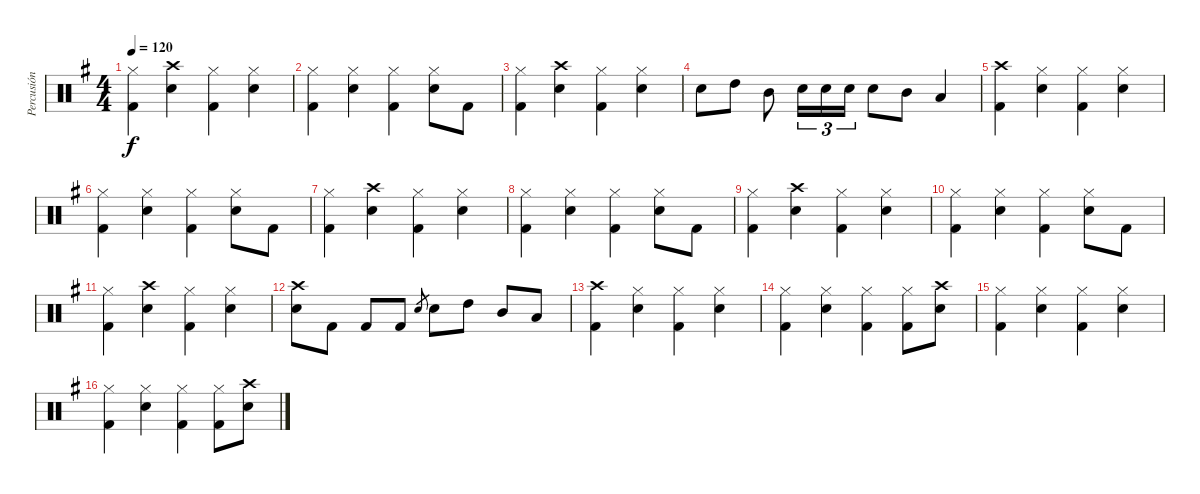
\track ("Percusión" "Percusión") {instrument percussion}
\staff {score}
\articulation defaults
\ts (4 4)
\tempo 120
\clef neutral
\ks g
("Hi-Hat (closed)" "Kick (hit) 2").4{dy f} ("Crash high (hit)" "Snare (hit) 2").4 ("Hi-Hat (closed)" "Kick (hit) 2").4 ("Hi-Hat (closed)" "Snare (hit) 2").4 |
("Hi-Hat (closed)" "Kick (hit) 2").4 ("Hi-Hat (closed)" "Snare (hit) 2").4 ("Hi-Hat (closed)" "Kick (hit) 2").4 ("Hi-Hat (closed)" "Snare (hit) 2").8 "Kick (hit) 2".8 |
("Hi-Hat (closed)" "Kick (hit) 2").4 ("Crash high (hit)" "Snare (hit) 2").4 ("Hi-Hat (closed)" "Kick (hit) 2").4 ("Hi-Hat (closed)" "Snare (hit) 2").4 |
"Snare (hit) 2".8 "High Tom (hit)".8 "Mid Tom (hit)".8 "Snare (hit) 2".16{tu (3 2)} "Snare (hit) 2".16{tu (3 2)} "Snare (hit) 2".16{tu (3 2)} "Snare (hit) 2".8 "Mid Tom (hit)".8 "Low Tom (hit)".4 |
("Crash high (hit)" "Kick (hit) 2").4 ("Hi-Hat (closed)" "Snare (hit) 2").4 ("Hi-Hat (closed)" "Kick (hit) 2").4 ("Hi-Hat (closed)" "Snare (hit) 2").4 |
("Hi-Hat (closed)" "Kick (hit) 2").4 ("Hi-Hat (closed)" "Snare (hit) 2").4 ("Hi-Hat (closed)" "Kick (hit) 2").4 ("Hi-Hat (closed)" "Snare (hit) 2").8 "Kick (hit) 2".8 |
("Hi-Hat (closed)" "Kick (hit) 2").4 ("Crash high (hit)" "Snare (hit) 2").4 ("Hi-Hat (closed)" "Kick (hit) 2").4 ("Hi-Hat (closed)" "Snare (hit) 2").4 |
("Hi-Hat (closed)" "Kick (hit) 2").4 ("Hi-Hat (closed)" "Snare (hit) 2").4 ("Hi-Hat (closed)" "Kick (hit) 2").4 ("Hi-Hat (closed)" "Snare (hit) 2").8 "Kick (hit) 2".8 |
("Hi-Hat (closed)" "Kick (hit) 2").4 ("Crash high (hit)" "Snare (hit) 2").4 ("Hi-Hat (closed)" "Kick (hit) 2").4 ("Hi-Hat (closed)" "Snare (hit) 2").4 |
("Hi-Hat (closed)" "Kick (hit) 2").4 ("Hi-Hat (closed)" "Snare (hit) 2").4 ("Hi-Hat (closed)" "Kick (hit) 2").4 ("Hi-Hat (closed)" "Snare (hit) 2").8 "Kick (hit) 2".8 |
("Hi-Hat (closed)" "Kick (hit) 2").4 ("Crash high (hit)" "Snare (hit) 2").4 ("Hi-Hat (closed)" "Kick (hit) 2").4 ("Hi-Hat (closed)" "Snare (hit) 2").4 |
("Crash high (hit)" "Snare (hit) 2").8 "Kick (hit) 2".8 "Kick (hit) 2".8 "Kick (hit) 2".8 "Snare (hit) 2".8{gr} "Snare (hit) 2".8 "High Tom (hit)".8 "Mid Tom (hit)".8 "Low Tom (hit)".8 |
("Crash high (hit)" "Kick (hit) 2").4 ("Hi-Hat (closed)" "Snare (hit) 2").4 ("Hi-Hat (closed)" "Kick (hit) 2").4 ("Hi-Hat (closed)" "Snare (hit) 2").4 |
("Hi-Hat (closed)" "Kick (hit) 2").4 ("Hi-Hat (closed)" "Snare (hit) 2").4 ("Hi-Hat (closed)" "Kick (hit) 2").4 ("Hi-Hat (closed)" "Kick (hit) 2").8 ("Crash high (hit)" "Snare (hit) 2").8 |
("Hi-Hat (closed)" "Kick (hit) 2").4 ("Hi-Hat (closed)" "Snare (hit) 2").4 ("Hi-Hat (closed)" "Kick (hit) 2").4 ("Hi-Hat (closed)" "Snare (hit) 2").4 |
("Hi-Hat (closed)" "Kick (hit) 2").4 ("Hi-Hat (closed)" "Snare (hit) 2").4 ("Hi-Hat (closed)" "Kick (hit) 2").4 ("Hi-Hat (closed)" "Kick (hit) 2").8 ("Crash high (hit)" "Snare (hit) 2").8
